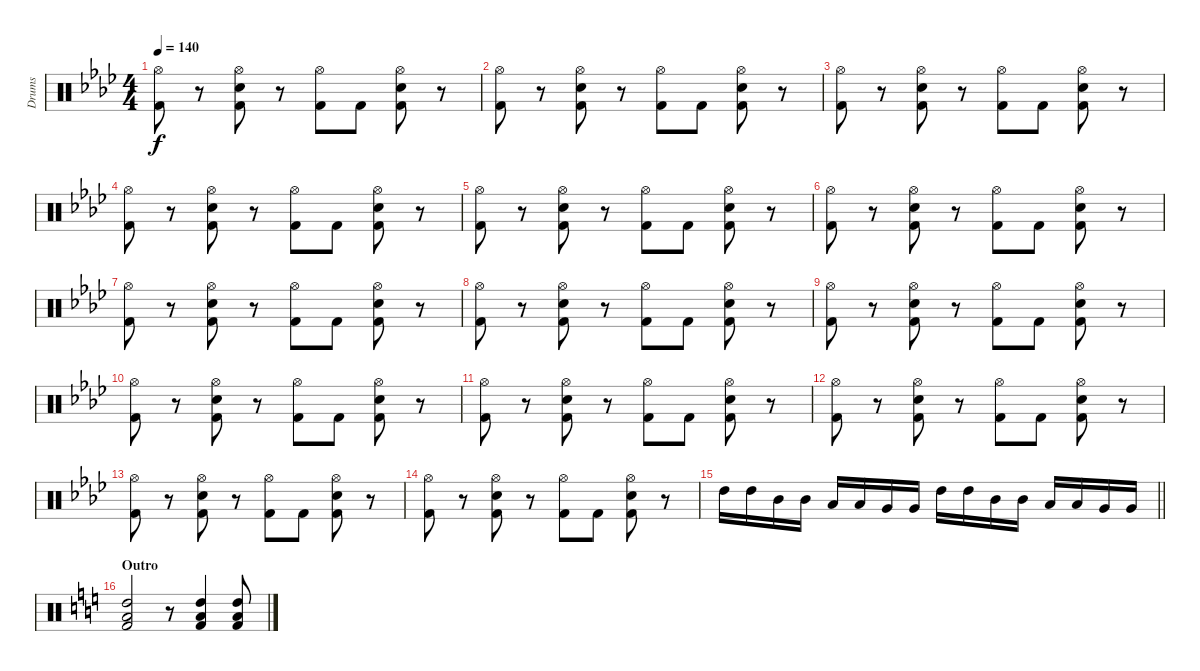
\track ("Drums" "Drums") {instrument percussion}
\staff {score}
\articulation defaults
\ts (4 4)
\tempo 140
\clef neutral
\ks ab
("Hi-Hat (open)" "Kick (hit) 2").8{dy f} r.8 ("Hi-Hat (open)" "Electric Snare (hit)" "Kick (hit) 2").8 r.8 ("Hi-Hat (open)" "Kick (hit) 2").8 "Kick (hit) 2".8 ("Hi-Hat (open)" "Electric Snare (hit)" "Kick (hit) 2").8 r.8 |
("Hi-Hat (open)" "Kick (hit) 2").8 r.8 ("Hi-Hat (open)" "Electric Snare (hit)" "Kick (hit) 2").8 r.8 ("Hi-Hat (open)" "Kick (hit) 2").8 "Kick (hit) 2".8 ("Hi-Hat (open)" "Electric Snare (hit)" "Kick (hit) 2").8 r.8 |
("Hi-Hat (open)" "Kick (hit) 2").8 r.8 ("Hi-Hat (open)" "Electric Snare (hit)" "Kick (hit) 2").8 r.8 ("Hi-Hat (open)" "Kick (hit) 2").8 "Kick (hit) 2".8 ("Hi-Hat (open)" "Electric Snare (hit)" "Kick (hit) 2").8 r.8 |
("Hi-Hat (open)" "Kick (hit) 2").8 r.8 ("Hi-Hat (open)" "Electric Snare (hit)" "Kick (hit) 2").8 r.8 ("Hi-Hat (open)" "Kick (hit) 2").8 "Kick (hit) 2".8 ("Hi-Hat (open)" "Electric Snare (hit)" "Kick (hit) 2").8 r.8 |
("Hi-Hat (open)" "Kick (hit) 2").8 r.8 ("Hi-Hat (open)" "Electric Snare (hit)" "Kick (hit) 2").8 r.8 ("Hi-Hat (open)" "Kick (hit) 2").8 "Kick (hit) 2".8 ("Hi-Hat (open)" "Electric Snare (hit)" "Kick (hit) 2").8 r.8 |
("Hi-Hat (open)" "Kick (hit) 2").8 r.8 ("Hi-Hat (open)" "Electric Snare (hit)" "Kick (hit) 2").8 r.8 ("Hi-Hat (open)" "Kick (hit) 2").8 "Kick (hit) 2".8 ("Hi-Hat (open)" "Electric Snare (hit)" "Kick (hit) 2").8 r.8 |
("Hi-Hat (open)" "Kick (hit) 2").8 r.8 ("Hi-Hat (open)" "Electric Snare (hit)" "Kick (hit) 2").8 r.8 ("Hi-Hat (open)" "Kick (hit) 2").8 "Kick (hit) 2".8 ("Hi-Hat (open)" "Electric Snare (hit)" "Kick (hit) 2").8 r.8 |
("Hi-Hat (open)" "Kick (hit) 2").8 r.8 ("Hi-Hat (open)" "Electric Snare (hit)" "Kick (hit) 2").8 r.8 ("Hi-Hat (open)" "Kick (hit) 2").8 "Kick (hit) 2".8 ("Hi-Hat (open)" "Electric Snare (hit)" "Kick (hit) 2").8 r.8 |
("Hi-Hat (open)" "Kick (hit) 2").8 r.8 ("Hi-Hat (open)" "Electric Snare (hit)" "Kick (hit) 2").8 r.8 ("Hi-Hat (open)" "Kick (hit) 2").8 "Kick (hit) 2".8 ("Hi-Hat (open)" "Electric Snare (hit)" "Kick (hit) 2").8 r.8 |
("Hi-Hat (open)" "Kick (hit) 2").8 r.8 ("Hi-Hat (open)" "Electric Snare (hit)" "Kick (hit) 2").8 r.8 ("Hi-Hat (open)" "Kick (hit) 2").8 "Kick (hit) 2".8 ("Hi-Hat (open)" "Electric Snare (hit)" "Kick (hit) 2").8 r.8 |
("Hi-Hat (open)" "Kick (hit) 2").8 r.8 ("Hi-Hat (open)" "Electric Snare (hit)" "Kick (hit) 2").8 r.8 ("Hi-Hat (open)" "Kick (hit) 2").8 "Kick (hit) 2".8 ("Hi-Hat (open)" "Electric Snare (hit)" "Kick (hit) 2").8 r.8 |
("Hi-Hat (open)" "Kick (hit) 2").8 r.8 ("Hi-Hat (open)" "Electric Snare (hit)" "Kick (hit) 2").8 r.8 ("Hi-Hat (open)" "Kick (hit) 2").8 "Kick (hit) 2".8 ("Hi-Hat (open)" "Electric Snare (hit)" "Kick (hit) 2").8 r.8 |
("Hi-Hat (open)" "Kick (hit) 2").8 r.8 ("Hi-Hat (open)" "Electric Snare (hit)" "Kick (hit) 2").8 r.8 ("Hi-Hat (open)" "Kick (hit) 2").8 "Kick (hit) 2".8 ("Hi-Hat (open)" "Electric Snare (hit)" "Kick (hit) 2").8 r.8 |
("Hi-Hat (open)" "Kick (hit) 2").8 r.8 ("Hi-Hat (open)" "Electric Snare (hit)" "Kick (hit) 2").8 r.8 ("Hi-Hat (open)" "Kick (hit) 2").8 "Kick (hit) 2".8 ("Hi-Hat (open)" "Electric Snare (hit)" "Kick (hit) 2").8 r.8 |
\barLineRight lightlight "High Tom (hit)".16 "High Tom (hit)".16 "Mid Tom (hit)".16 "Mid Tom (hit)".16 "Low Tom (hit)".16 "Low Tom (hit)".16 "Very Low Tom (hit)".16 "Very Low Tom (hit)".16 "High Tom (hit)".16 "High Tom (hit)".16 "Mid Tom (hit)".16 "Mid Tom (hit)".16 "Low Tom (hit)".16 "Low Tom (hit)".16 "Very Low Tom (hit)".16 "Very Low Tom (hit)".16
|
\section ("" "Outro")
\ks c
("High Tom (hit)" "Low Tom (hit)" "Kick (hit) 2").2 r.8 ("High Tom (hit)" "Low Tom (hit)" "Kick (hit) 2").4 ("High Tom (hit)" "Low Tom (hit)" "Kick (hit) 2").8
